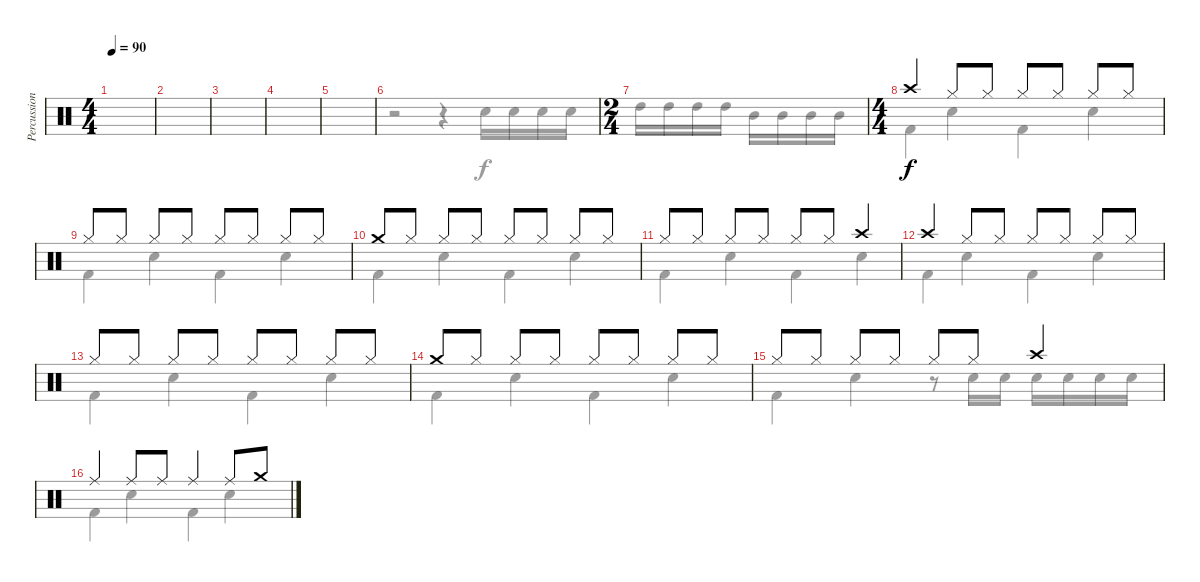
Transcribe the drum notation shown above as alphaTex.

\track ("Percussion" "Percussion") {instrument percussion}
\staff {score}
\articulation defaults
\voice
\ts (4 4)
\tempo 90
\clef neutral
\ks c
|
|
|
|
|
|
\ts (2 4)
|
\ts (4 4)
"Crash high (hit)".4 "Hi-Hat (closed)".8 "Hi-Hat (closed)".8 "Hi-Hat (closed)".8 "Hi-Hat (closed)".8 "Hi-Hat (closed)".8 "Hi-Hat (closed)".8 |
"Hi-Hat (closed)".8 "Hi-Hat (closed)".8 "Hi-Hat (closed)".8 "Hi-Hat (closed)".8 "Hi-Hat (closed)".8 "Hi-Hat (closed)".8 "Hi-Hat (closed)".8 "Hi-Hat (closed)".8 |
"Crash medium (hit)".8 "Hi-Hat (closed)".8 "Hi-Hat (closed)".8 "Hi-Hat (closed)".8 "Hi-Hat (closed)".8 "Hi-Hat (closed)".8 "Hi-Hat (closed)".8 "Hi-Hat (closed)".8 |
"Hi-Hat (closed)".8 "Hi-Hat (closed)".8 "Hi-Hat (closed)".8 "Hi-Hat (closed)".8 "Hi-Hat (closed)".8 "Hi-Hat (closed)".8 "Crash high (hit)".4 |
"Crash high (hit)".4 "Hi-Hat (closed)".8 "Hi-Hat (closed)".8 "Hi-Hat (closed)".8 "Hi-Hat (closed)".8 "Hi-Hat (closed)".8 "Hi-Hat (closed)".8 |
"Hi-Hat (closed)".8 "Hi-Hat (closed)".8 "Hi-Hat (closed)".8 "Hi-Hat (closed)".8 "Hi-Hat (closed)".8 "Hi-Hat (closed)".8 "Hi-Hat (closed)".8 "Hi-Hat (closed)".8 |
"Crash medium (hit)".8 "Hi-Hat (closed)".8 "Hi-Hat (closed)".8 "Hi-Hat (closed)".8 "Hi-Hat (closed)".8 "Hi-Hat (closed)".8 "Hi-Hat (closed)".8 "Hi-Hat (closed)".8 |
"Hi-Hat (closed)".8 "Hi-Hat (closed)".8 "Hi-Hat (closed)".8 "Hi-Hat (closed)".8 "Hi-Hat (closed)".8 "Hi-Hat (closed)".8 "Crash high (hit)".4 |
"Ride (middle)".4 "Ride (middle)".8 "Ride (middle)".8 "Ride (middle)".4 "Ride (middle)".8 "Crash medium (hit)".8
\voice
\clef neutral
\ottava regular
\simile none
\ks c
|
|
|
|
|
r.2 r.4 "Snare (hit) 2".16 "Snare (hit) 2".16 "Snare (hit) 2".16 "Snare (hit) 2".16 |
"High Tom (hit)".16 "High Tom (hit)".16 "High Tom (hit)".16 "High Tom (hit)".16 "Mid Tom (hit)".16 "Mid Tom (hit)".16 "Mid Tom (hit)".16 "Mid Tom (hit)".16 |
"Kick (hit) 2".4 "Snare (hit) 2".4 "Kick (hit) 2".4 "Snare (hit) 2".4 |
"Kick (hit) 2".4 "Snare (hit) 2".4 "Kick (hit) 2".4 "Snare (hit) 2".4 |
"Kick (hit) 2".4 "Snare (hit) 2".4 "Kick (hit) 2".4 "Snare (hit) 2".4 |
"Kick (hit) 2".4 "Snare (hit) 2".4 "Kick (hit) 2".4 "Snare (hit) 2".4 |
"Kick (hit) 2".4 "Snare (hit) 2".4 "Kick (hit) 2".4 "Snare (hit) 2".4 |
"Kick (hit) 2".4 "Snare (hit) 2".4 "Kick (hit) 2".4 "Snare (hit) 2".4 |
"Kick (hit) 2".4 "Snare (hit) 2".4 "Kick (hit) 2".4 "Snare (hit) 2".4 |
"Kick (hit) 2".4 "Snare (hit) 2".4 r.8 "Snare (hit) 2".16 "Snare (hit) 2".16 "Snare (hit) 2".16 "Snare (hit) 2".16 "Snare (hit) 2".16 "Snare (hit) 2".16 |
"Kick (hit) 2".4 "Snare (hit) 2".4 "Kick (hit) 2".4 "Snare (hit) 2".4
